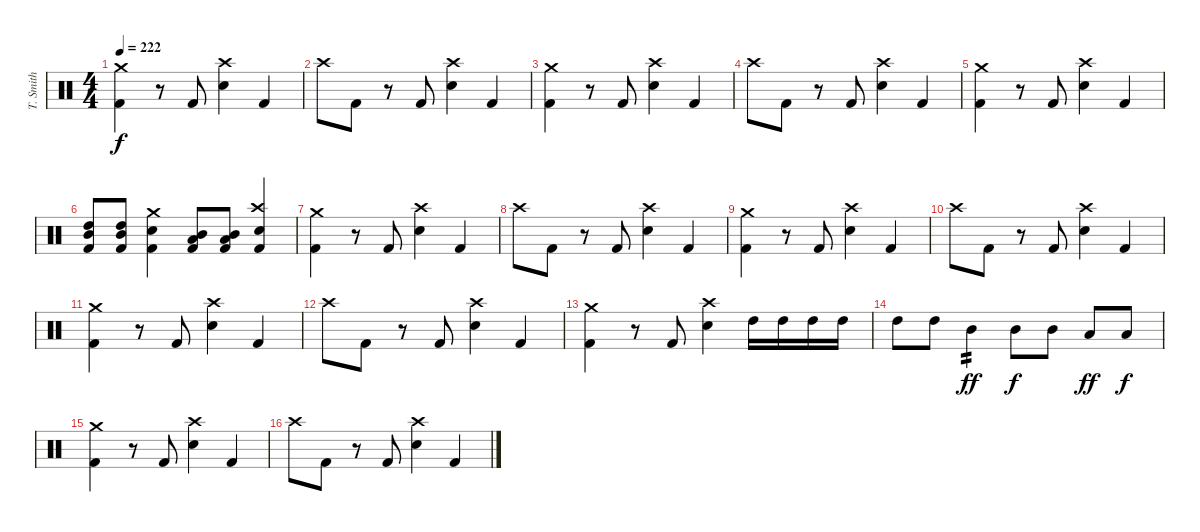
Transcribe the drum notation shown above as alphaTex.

\track ("T. Smith" "T. Smith") {instrument percussion}
\staff {score}
\articulation defaults
\ts (4 4)
\tempo 222
\clef neutral
\ks c
("Crash medium (hit)" "Kick (hit) 2").4{dy f} r.8 "Kick (hit) 2".8 ("Crash high (hit)" "Electric Snare (hit)").4 "Kick (hit) 2".4 |
"Crash high (hit)".8 "Kick (hit) 2".8 r.8 "Kick (hit) 2".8 ("Crash high (hit)" "Electric Snare (hit)").4 "Kick (hit) 2".4 |
("Crash medium (hit)" "Kick (hit) 2").4 r.8 "Kick (hit) 2".8 ("Crash high (hit)" "Electric Snare (hit)").4 "Kick (hit) 2".4 |
"Crash high (hit)".8 "Kick (hit) 2".8 r.8 "Kick (hit) 2".8 ("Crash high (hit)" "Electric Snare (hit)").4 "Kick (hit) 2".4 |
("Crash medium (hit)" "Kick (hit) 2").4 r.8 "Kick (hit) 2".8 ("Crash high (hit)" "Electric Snare (hit)").4 "Kick (hit) 2".4 |
("Mid Tom (hit)" "High Tom (hit)" "Kick (hit) 2").8 ("Mid Tom (hit)" "High Tom (hit)" "Kick (hit) 2").8 ("Crash medium (hit)" "Electric Snare (hit)" "Kick (hit) 2").4 ("Mid Tom (hit)" "Low Tom (hit)" "Kick (hit) 2").8 ("Mid Tom (hit)" "Low Tom (hit)" "Kick (hit) 2").8 ("Crash high (hit)" "Electric Snare (hit)" "Kick (hit) 2").4 |
("Crash medium (hit)" "Kick (hit) 2").4 r.8 "Kick (hit) 2".8 ("Crash high (hit)" "Electric Snare (hit)").4 "Kick (hit) 2".4 |
"Crash high (hit)".8 "Kick (hit) 2".8 r.8 "Kick (hit) 2".8 ("Crash high (hit)" "Electric Snare (hit)").4 "Kick (hit) 2".4 |
("Crash medium (hit)" "Kick (hit) 2").4 r.8 "Kick (hit) 2".8 ("Crash high (hit)" "Electric Snare (hit)").4 "Kick (hit) 2".4 |
"Crash high (hit)".8 "Kick (hit) 2".8 r.8 "Kick (hit) 2".8 ("Crash high (hit)" "Electric Snare (hit)").4 "Kick (hit) 2".4 |
("Crash medium (hit)" "Kick (hit) 2").4 r.8 "Kick (hit) 2".8 ("Crash high (hit)" "Electric Snare (hit)").4 "Kick (hit) 2".4 |
"Crash high (hit)".8 "Kick (hit) 2".8 r.8 "Kick (hit) 2".8 ("Crash high (hit)" "Electric Snare (hit)").4 "Kick (hit) 2".4 |
("Crash medium (hit)" "Kick (hit) 2").4 r.8 "Kick (hit) 2".8 ("Crash high (hit)" "Electric Snare (hit)").4 "High Tom (hit)".16 "High Tom (hit)".16 "High Tom (hit)".16 "High Tom (hit)".16 |
"High Tom (hit)".8 "High Tom (hit)".8 "Mid Tom (hit)".4{tp 2 dy ff} "Mid Tom (hit)".8{dy f} "Mid Tom (hit)".8 "Low Tom (hit)".8{dy ff} "Low Tom (hit)".8{dy f} |
("Crash medium (hit)" "Kick (hit) 2").4 r.8 "Kick (hit) 2".8 ("Crash high (hit)" "Electric Snare (hit)").4 "Kick (hit) 2".4 |
"Crash high (hit)".8 "Kick (hit) 2".8 r.8 "Kick (hit) 2".8 ("Crash high (hit)" "Electric Snare (hit)").4 "Kick (hit) 2".4
